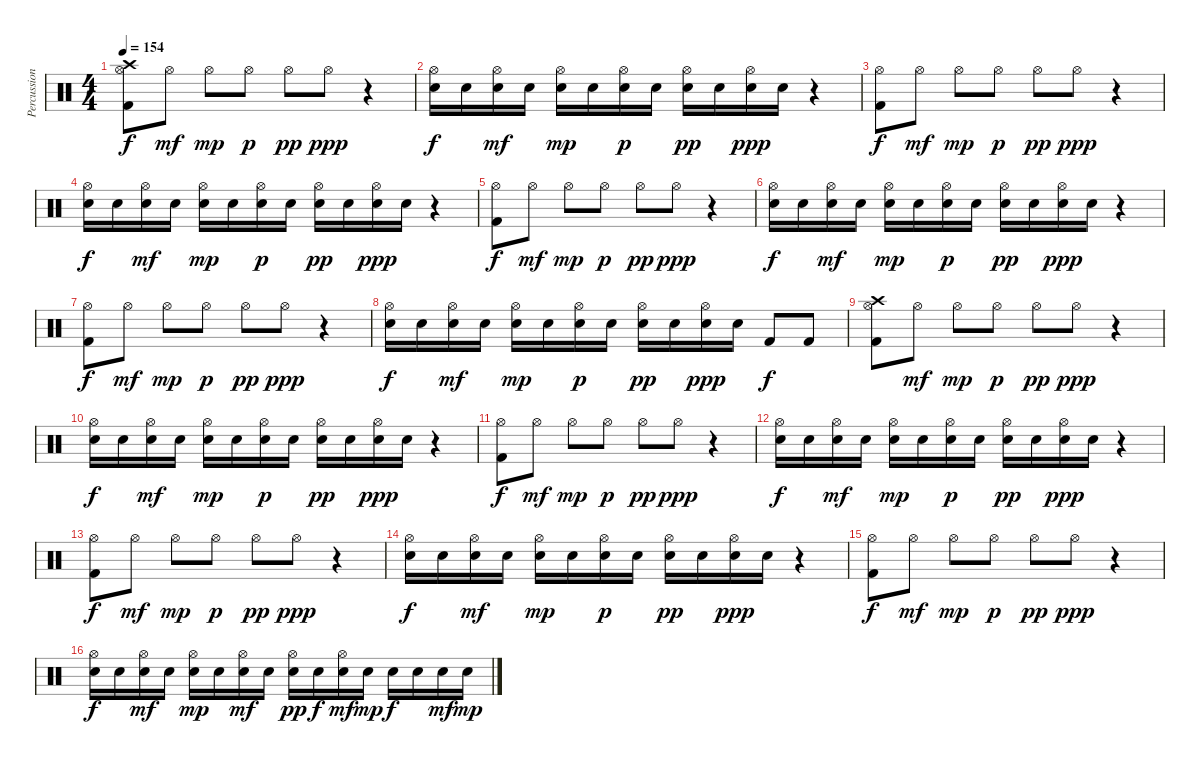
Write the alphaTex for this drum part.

\track ("Percussion" "Percussion") {instrument percussion}
\staff {score}
\articulation defaults
\ts (4 4)
\section ("" "")
\tempo 154
\clef neutral
\ks c
("Crash high (hit)" "Hi-Hat (open)" "Kick (hit) 2").8{dy f} "Hi-Hat (open)".8{dy mf} "Hi-Hat (open)".8{dy mp} "Hi-Hat (open)".8{dy p} "Hi-Hat (open)".8{dy pp} "Hi-Hat (open)".8{dy ppp} r.4 |
("Hi-Hat (open)" "Snare (hit) 2").16{dy f} "Snare (hit) 2".16 ("Hi-Hat (open)" "Snare (hit) 2").16{dy mf} "Snare (hit) 2".16 ("Hi-Hat (open)" "Snare (hit) 2").16{dy mp} "Snare (hit) 2".16 ("Hi-Hat (open)" "Snare (hit) 2").16{dy p} "Snare (hit) 2".16 ("Hi-Hat (open)" "Snare (hit) 2").16{dy pp} "Snare (hit) 2".16 ("Hi-Hat (open)" "Snare (hit) 2").16{dy ppp} "Snare (hit) 2".16 r.4 |
("Hi-Hat (open)" "Kick (hit) 2").8{dy f} "Hi-Hat (open)".8{dy mf} "Hi-Hat (open)".8{dy mp} "Hi-Hat (open)".8{dy p} "Hi-Hat (open)".8{dy pp} "Hi-Hat (open)".8{dy ppp} r.4 |
("Hi-Hat (open)" "Snare (hit) 2").16{dy f} "Snare (hit) 2".16 ("Hi-Hat (open)" "Snare (hit) 2").16{dy mf} "Snare (hit) 2".16 ("Hi-Hat (open)" "Snare (hit) 2").16{dy mp} "Snare (hit) 2".16 ("Hi-Hat (open)" "Snare (hit) 2").16{dy p} "Snare (hit) 2".16 ("Hi-Hat (open)" "Snare (hit) 2").16{dy pp} "Snare (hit) 2".16 ("Hi-Hat (open)" "Snare (hit) 2").16{dy ppp} "Snare (hit) 2".16 r.4 |
("Hi-Hat (open)" "Kick (hit) 2").8{dy f} "Hi-Hat (open)".8{dy mf} "Hi-Hat (open)".8{dy mp} "Hi-Hat (open)".8{dy p} "Hi-Hat (open)".8{dy pp} "Hi-Hat (open)".8{dy ppp} r.4 |
("Hi-Hat (open)" "Snare (hit) 2").16{dy f} "Snare (hit) 2".16 ("Hi-Hat (open)" "Snare (hit) 2").16{dy mf} "Snare (hit) 2".16 ("Hi-Hat (open)" "Snare (hit) 2").16{dy mp} "Snare (hit) 2".16 ("Hi-Hat (open)" "Snare (hit) 2").16{dy p} "Snare (hit) 2".16 ("Hi-Hat (open)" "Snare (hit) 2").16{dy pp} "Snare (hit) 2".16 ("Hi-Hat (open)" "Snare (hit) 2").16{dy ppp} "Snare (hit) 2".16 r.4 |
("Hi-Hat (open)" "Kick (hit) 2").8{dy f} "Hi-Hat (open)".8{dy mf} "Hi-Hat (open)".8{dy mp} "Hi-Hat (open)".8{dy p} "Hi-Hat (open)".8{dy pp} "Hi-Hat (open)".8{dy ppp} r.4 |
("Hi-Hat (open)" "Snare (hit) 2").16{dy f} "Snare (hit) 2".16 ("Hi-Hat (open)" "Snare (hit) 2").16{dy mf} "Snare (hit) 2".16 ("Hi-Hat (open)" "Snare (hit) 2").16{dy mp} "Snare (hit) 2".16 ("Hi-Hat (open)" "Snare (hit) 2").16{dy p} "Snare (hit) 2".16 ("Hi-Hat (open)" "Snare (hit) 2").16{dy pp} "Snare (hit) 2".16 ("Hi-Hat (open)" "Snare (hit) 2").16{dy ppp} "Snare (hit) 2".16 "Kick (hit) 2".8{dy f} "Kick (hit) 2".8 |
\section ("" "")
("Crash high (hit)" "Hi-Hat (open)" "Kick (hit) 2").8 "Hi-Hat (open)".8{dy mf} "Hi-Hat (open)".8{dy mp} "Hi-Hat (open)".8{dy p} "Hi-Hat (open)".8{dy pp} "Hi-Hat (open)".8{dy ppp} r.4 |
("Hi-Hat (open)" "Snare (hit) 2").16{dy f} "Snare (hit) 2".16 ("Hi-Hat (open)" "Snare (hit) 2").16{dy mf} "Snare (hit) 2".16 ("Hi-Hat (open)" "Snare (hit) 2").16{dy mp} "Snare (hit) 2".16 ("Hi-Hat (open)" "Snare (hit) 2").16{dy p} "Snare (hit) 2".16 ("Hi-Hat (open)" "Snare (hit) 2").16{dy pp} "Snare (hit) 2".16 ("Hi-Hat (open)" "Snare (hit) 2").16{dy ppp} "Snare (hit) 2".16 r.4 |
("Hi-Hat (open)" "Kick (hit) 2").8{dy f} "Hi-Hat (open)".8{dy mf} "Hi-Hat (open)".8{dy mp} "Hi-Hat (open)".8{dy p} "Hi-Hat (open)".8{dy pp} "Hi-Hat (open)".8{dy ppp} r.4 |
("Hi-Hat (open)" "Snare (hit) 2").16{dy f} "Snare (hit) 2".16 ("Hi-Hat (open)" "Snare (hit) 2").16{dy mf} "Snare (hit) 2".16 ("Hi-Hat (open)" "Snare (hit) 2").16{dy mp} "Snare (hit) 2".16 ("Hi-Hat (open)" "Snare (hit) 2").16{dy p} "Snare (hit) 2".16 ("Hi-Hat (open)" "Snare (hit) 2").16{dy pp} "Snare (hit) 2".16 ("Hi-Hat (open)" "Snare (hit) 2").16{dy ppp} "Snare (hit) 2".16 r.4 |
("Hi-Hat (open)" "Kick (hit) 2").8{dy f} "Hi-Hat (open)".8{dy mf} "Hi-Hat (open)".8{dy mp} "Hi-Hat (open)".8{dy p} "Hi-Hat (open)".8{dy pp} "Hi-Hat (open)".8{dy ppp} r.4 |
("Hi-Hat (open)" "Snare (hit) 2").16{dy f} "Snare (hit) 2".16 ("Hi-Hat (open)" "Snare (hit) 2").16{dy mf} "Snare (hit) 2".16 ("Hi-Hat (open)" "Snare (hit) 2").16{dy mp} "Snare (hit) 2".16 ("Hi-Hat (open)" "Snare (hit) 2").16{dy p} "Snare (hit) 2".16 ("Hi-Hat (open)" "Snare (hit) 2").16{dy pp} "Snare (hit) 2".16 ("Hi-Hat (open)" "Snare (hit) 2").16{dy ppp} "Snare (hit) 2".16 r.4 |
("Hi-Hat (open)" "Kick (hit) 2").8{dy f} "Hi-Hat (open)".8{dy mf} "Hi-Hat (open)".8{dy mp} "Hi-Hat (open)".8{dy p} "Hi-Hat (open)".8{dy pp} "Hi-Hat (open)".8{dy ppp} r.4 |
("Hi-Hat (open)" "Snare (hit) 2").16{dy f} "Snare (hit) 2".16 ("Hi-Hat (open)" "Snare (hit) 2").16{dy mf} "Snare (hit) 2".16 ("Hi-Hat (open)" "Snare (hit) 2").16{dy mp} "Snare (hit) 2".16 ("Hi-Hat (open)" "Snare (hit) 2").16{dy mf} "Snare (hit) 2".16 ("Hi-Hat (open)" "Snare (hit) 2").16{dy pp} "Snare (hit) 2".16{dy f} ("Hi-Hat (open)" "Snare (hit) 2").16{dy mf} "Snare (hit) 2".16{dy mp} "Snare (hit) 2".16{dy f} "Snare (hit) 2".16 "Snare (hit) 2".16{dy mf} "Snare (hit) 2".16{dy mp}
